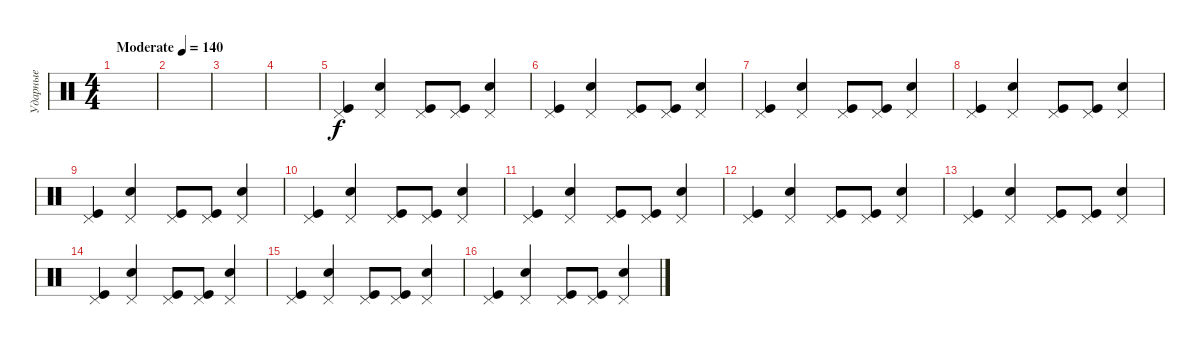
\track ("Ударные" "Ударные") {instrument percussion}
\staff {score}
\articulation defaults
\ts (4 4)
\tempo (140 "Moderate")
\clef neutral
\ks c
|
|
|
|
("Kick (hit)" "Pedal Hi-Hat (hit)").4 ("Electric Snare (hit)" "Pedal Hi-Hat (hit)").4 ("Kick (hit)" "Pedal Hi-Hat (hit)").8 ("Kick (hit)" "Pedal Hi-Hat (hit)").8 ("Electric Snare (hit)" "Pedal Hi-Hat (hit)").4 |
("Kick (hit)" "Pedal Hi-Hat (hit)").4 ("Electric Snare (hit)" "Pedal Hi-Hat (hit)").4 ("Kick (hit)" "Pedal Hi-Hat (hit)").8 ("Kick (hit)" "Pedal Hi-Hat (hit)").8 ("Electric Snare (hit)" "Pedal Hi-Hat (hit)").4 |
("Kick (hit)" "Pedal Hi-Hat (hit)").4 ("Electric Snare (hit)" "Pedal Hi-Hat (hit)").4 ("Kick (hit)" "Pedal Hi-Hat (hit)").8 ("Kick (hit)" "Pedal Hi-Hat (hit)").8 ("Electric Snare (hit)" "Pedal Hi-Hat (hit)").4 |
("Kick (hit)" "Pedal Hi-Hat (hit)").4 ("Electric Snare (hit)" "Pedal Hi-Hat (hit)").4 ("Kick (hit)" "Pedal Hi-Hat (hit)").8 ("Kick (hit)" "Pedal Hi-Hat (hit)").8 ("Electric Snare (hit)" "Pedal Hi-Hat (hit)").4 |
("Kick (hit)" "Pedal Hi-Hat (hit)").4 ("Electric Snare (hit)" "Pedal Hi-Hat (hit)").4 ("Kick (hit)" "Pedal Hi-Hat (hit)").8 ("Kick (hit)" "Pedal Hi-Hat (hit)").8 ("Electric Snare (hit)" "Pedal Hi-Hat (hit)").4 |
("Kick (hit)" "Pedal Hi-Hat (hit)").4 ("Electric Snare (hit)" "Pedal Hi-Hat (hit)").4 ("Kick (hit)" "Pedal Hi-Hat (hit)").8 ("Kick (hit)" "Pedal Hi-Hat (hit)").8 ("Electric Snare (hit)" "Pedal Hi-Hat (hit)").4 |
("Kick (hit)" "Pedal Hi-Hat (hit)").4 ("Electric Snare (hit)" "Pedal Hi-Hat (hit)").4 ("Kick (hit)" "Pedal Hi-Hat (hit)").8 ("Kick (hit)" "Pedal Hi-Hat (hit)").8 ("Electric Snare (hit)" "Pedal Hi-Hat (hit)").4 |
("Kick (hit)" "Pedal Hi-Hat (hit)").4 ("Electric Snare (hit)" "Pedal Hi-Hat (hit)").4 ("Kick (hit)" "Pedal Hi-Hat (hit)").8 ("Kick (hit)" "Pedal Hi-Hat (hit)").8 ("Electric Snare (hit)" "Pedal Hi-Hat (hit)").4 |
("Kick (hit)" "Pedal Hi-Hat (hit)").4 ("Electric Snare (hit)" "Pedal Hi-Hat (hit)").4 ("Kick (hit)" "Pedal Hi-Hat (hit)").8 ("Kick (hit)" "Pedal Hi-Hat (hit)").8 ("Electric Snare (hit)" "Pedal Hi-Hat (hit)").4 |
("Kick (hit)" "Pedal Hi-Hat (hit)").4 ("Electric Snare (hit)" "Pedal Hi-Hat (hit)").4 ("Kick (hit)" "Pedal Hi-Hat (hit)").8 ("Kick (hit)" "Pedal Hi-Hat (hit)").8 ("Electric Snare (hit)" "Pedal Hi-Hat (hit)").4 |
("Kick (hit)" "Pedal Hi-Hat (hit)").4 ("Electric Snare (hit)" "Pedal Hi-Hat (hit)").4 ("Kick (hit)" "Pedal Hi-Hat (hit)").8 ("Kick (hit)" "Pedal Hi-Hat (hit)").8 ("Electric Snare (hit)" "Pedal Hi-Hat (hit)").4 |
("Kick (hit)" "Pedal Hi-Hat (hit)").4 ("Electric Snare (hit)" "Pedal Hi-Hat (hit)").4 ("Kick (hit)" "Pedal Hi-Hat (hit)").8 ("Kick (hit)" "Pedal Hi-Hat (hit)").8 ("Electric Snare (hit)" "Pedal Hi-Hat (hit)").4
